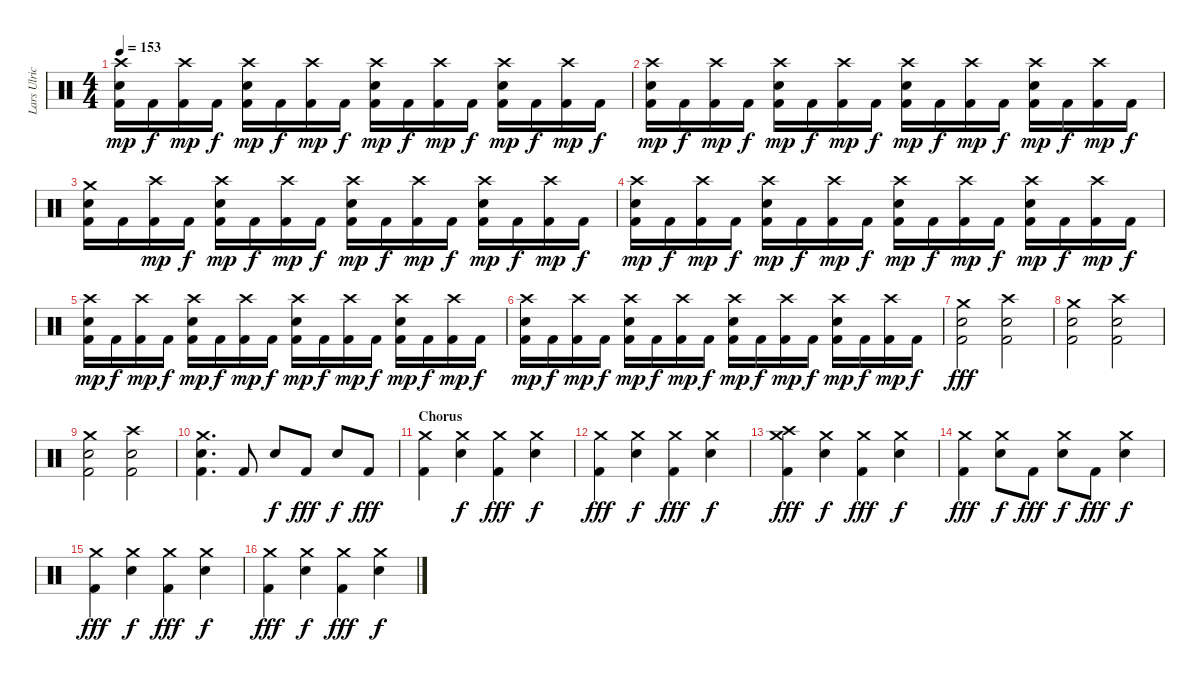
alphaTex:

\track ("Lars Ulrich (Drums)" "Lars Ulric") {instrument percussion}
\staff {score}
\articulation defaults
\ts (4 4)
\tempo 153
\clef neutral
\ks c
("Crash high (hit)" "Electric Snare (hit)" "Kick (hit) 2").16{dy mp} "Kick (hit) 2".16{dy f} ("Crash high (hit)" "Kick (hit) 2").16{dy mp} "Kick (hit) 2".16{dy f} ("Crash high (hit)" "Electric Snare (hit)" "Kick (hit) 2").16{dy mp} "Kick (hit) 2".16{dy f} ("Crash high (hit)" "Kick (hit) 2").16{dy mp} "Kick (hit) 2".16{dy f} ("Crash high (hit)" "Electric Snare (hit)" "Kick (hit) 2").16{dy mp} "Kick (hit) 2".16{dy f} ("Crash high (hit)" "Kick (hit) 2").16{dy mp} "Kick (hit) 2".16{dy f} ("Crash high (hit)" "Electric Snare (hit)" "Kick (hit) 2").16{dy mp} "Kick (hit) 2".16{dy f} ("Crash high (hit)" "Kick (hit) 2").16{dy mp} "Kick (hit) 2".16{dy f} |
("Crash high (hit)" "Electric Snare (hit)" "Kick (hit) 2").16{dy mp} "Kick (hit) 2".16{dy f} ("Crash high (hit)" "Kick (hit) 2").16{dy mp} "Kick (hit) 2".16{dy f} ("Crash high (hit)" "Electric Snare (hit)" "Kick (hit) 2").16{dy mp} "Kick (hit) 2".16{dy f} ("Crash high (hit)" "Kick (hit) 2").16{dy mp} "Kick (hit) 2".16{dy f} ("Crash high (hit)" "Electric Snare (hit)" "Kick (hit) 2").16{dy mp} "Kick (hit) 2".16{dy f} ("Crash high (hit)" "Kick (hit) 2").16{dy mp} "Kick (hit) 2".16{dy f} ("Crash high (hit)" "Electric Snare (hit)" "Kick (hit) 2").16{dy mp} "Kick (hit) 2".16{dy f} ("Crash high (hit)" "Kick (hit) 2").16{dy mp} "Kick (hit) 2".16{dy f} |
("Crash medium (hit)" "Electric Snare (hit)" "Kick (hit) 2").16 "Kick (hit) 2".16 ("Crash high (hit)" "Kick (hit) 2").16{dy mp} "Kick (hit) 2".16{dy f} ("Crash high (hit)" "Electric Snare (hit)" "Kick (hit) 2").16{dy mp} "Kick (hit) 2".16{dy f} ("Crash high (hit)" "Kick (hit) 2").16{dy mp} "Kick (hit) 2".16{dy f} ("Crash high (hit)" "Electric Snare (hit)" "Kick (hit) 2").16{dy mp} "Kick (hit) 2".16{dy f} ("Crash high (hit)" "Kick (hit) 2").16{dy mp} "Kick (hit) 2".16{dy f} ("Crash high (hit)" "Electric Snare (hit)" "Kick (hit) 2").16{dy mp} "Kick (hit) 2".16{dy f} ("Crash high (hit)" "Kick (hit) 2").16{dy mp} "Kick (hit) 2".16{dy f} |
("Crash high (hit)" "Electric Snare (hit)" "Kick (hit) 2").16{dy mp} "Kick (hit) 2".16{dy f} ("Crash high (hit)" "Kick (hit) 2").16{dy mp} "Kick (hit) 2".16{dy f} ("Crash high (hit)" "Electric Snare (hit)" "Kick (hit) 2").16{dy mp} "Kick (hit) 2".16{dy f} ("Crash high (hit)" "Kick (hit) 2").16{dy mp} "Kick (hit) 2".16{dy f} ("Crash high (hit)" "Electric Snare (hit)" "Kick (hit) 2").16{dy mp} "Kick (hit) 2".16{dy f} ("Crash high (hit)" "Kick (hit) 2").16{dy mp} "Kick (hit) 2".16{dy f} ("Crash high (hit)" "Electric Snare (hit)" "Kick (hit) 2").16{dy mp} "Kick (hit) 2".16{dy f} ("Crash high (hit)" "Kick (hit) 2").16{dy mp} "Kick (hit) 2".16{dy f} |
("Crash high (hit)" "Electric Snare (hit)" "Kick (hit) 2").16{dy mp} "Kick (hit) 2".16{dy f} ("Crash high (hit)" "Kick (hit) 2").16{dy mp} "Kick (hit) 2".16{dy f} ("Crash high (hit)" "Electric Snare (hit)" "Kick (hit) 2").16{dy mp} "Kick (hit) 2".16{dy f} ("Crash high (hit)" "Kick (hit) 2").16{dy mp} "Kick (hit) 2".16{dy f} ("Crash high (hit)" "Electric Snare (hit)" "Kick (hit) 2").16{dy mp} "Kick (hit) 2".16{dy f} ("Crash high (hit)" "Kick (hit) 2").16{dy mp} "Kick (hit) 2".16{dy f} ("Crash high (hit)" "Electric Snare (hit)" "Kick (hit) 2").16{dy mp} "Kick (hit) 2".16{dy f} ("Crash high (hit)" "Kick (hit) 2").16{dy mp} "Kick (hit) 2".16{dy f} |
("Crash high (hit)" "Electric Snare (hit)" "Kick (hit) 2").16{dy mp} "Kick (hit) 2".16{dy f} ("Crash high (hit)" "Kick (hit) 2").16{dy mp} "Kick (hit) 2".16{dy f} ("Crash high (hit)" "Electric Snare (hit)" "Kick (hit) 2").16{dy mp} "Kick (hit) 2".16{dy f} ("Crash high (hit)" "Kick (hit) 2").16{dy mp} "Kick (hit) 2".16{dy f} ("Crash high (hit)" "Electric Snare (hit)" "Kick (hit) 2").16{dy mp} "Kick (hit) 2".16{dy f} ("Crash high (hit)" "Kick (hit) 2").16{dy mp} "Kick (hit) 2".16{dy f} ("Crash high (hit)" "Electric Snare (hit)" "Kick (hit) 2").16{dy mp} "Kick (hit) 2".16{dy f} ("Crash high (hit)" "Kick (hit) 2").16{dy mp} "Kick (hit) 2".16{dy f} |
("Crash medium (hit)" "Electric Snare (hit)" "Kick (hit) 2").2{dy fff} ("Crash high (hit)" "Electric Snare (hit)" "Kick (hit) 2").2 |
("Crash medium (hit)" "Electric Snare (hit)" "Kick (hit) 2").2 ("Crash high (hit)" "Electric Snare (hit)" "Kick (hit) 2").2 |
("Crash medium (hit)" "Electric Snare (hit)" "Kick (hit) 2").2 ("Crash high (hit)" "Electric Snare (hit)" "Kick (hit) 2").2 |
("Crash medium (hit)" "Electric Snare (hit)" "Kick (hit) 2").4{d} "Kick (hit) 2".8 "Electric Snare (hit)".8{dy f} "Kick (hit) 2".8{dy fff} "Electric Snare (hit)".8{dy f} "Kick (hit) 2".8{dy fff} |
\section ("" "Chorus")
("Crash medium (hit)" "Kick (hit) 2").4 ("Crash medium (hit)" "Electric Snare (hit)").4{dy f} ("Crash medium (hit)" "Kick (hit) 2").4{dy fff} ("Crash medium (hit)" "Electric Snare (hit)").4{dy f} |
("Crash medium (hit)" "Kick (hit) 2").4{dy fff} ("Crash medium (hit)" "Electric Snare (hit)").4{dy f} ("Crash medium (hit)" "Kick (hit) 2").4{dy fff} ("Crash medium (hit)" "Electric Snare (hit)").4{dy f} |
("Crash medium (hit)" "Crash high (hit)" "Kick (hit) 2").4{dy fff} ("Crash medium (hit)" "Electric Snare (hit)").4{dy f} ("Crash medium (hit)" "Kick (hit) 2").4{dy fff} ("Crash medium (hit)" "Electric Snare (hit)").4{dy f} |
("Crash medium (hit)" "Kick (hit) 2").4{dy fff} ("Crash medium (hit)" "Electric Snare (hit)").8{dy f} "Kick (hit) 2".8{dy fff} ("Crash medium (hit)" "Electric Snare (hit)").8{dy f} "Kick (hit) 2".8{dy fff} ("Crash medium (hit)" "Electric Snare (hit)").4{dy f} |
("Crash medium (hit)" "Kick (hit) 2").4{dy fff} ("Crash medium (hit)" "Electric Snare (hit)").4{dy f} ("Crash medium (hit)" "Kick (hit) 2").4{dy fff} ("Crash medium (hit)" "Electric Snare (hit)").4{dy f} |
("Crash medium (hit)" "Kick (hit) 2").4{dy fff} ("Crash medium (hit)" "Electric Snare (hit)").4{dy f} ("Crash medium (hit)" "Kick (hit) 2").4{dy fff} ("Crash medium (hit)" "Electric Snare (hit)").4{dy f}
